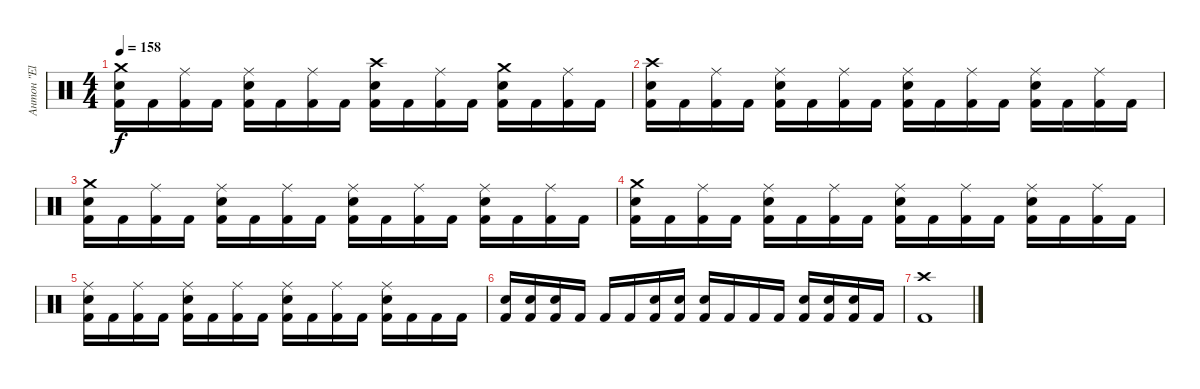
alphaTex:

\track ("Антон \"El Bastardo\" Смольянин" "Антон \"El ") {instrument percussion}
\staff {score}
\articulation defaults
\ts (4 4)
\tempo 158
\clef neutral
\ks c
("Crash medium (hit)" "Electric Snare (hit)" "Kick (hit) 2").16{dy f} "Kick (hit) 2".16 ("Ride (middle)" "Kick (hit) 2").16 "Kick (hit) 2".16 ("Ride (middle)" "Electric Snare (hit)" "Kick (hit) 2").16 "Kick (hit) 2".16 ("Ride (middle)" "Kick (hit) 2").16 "Kick (hit) 2".16 ("Crash high (hit)" "Electric Snare (hit)" "Kick (hit) 2").16 "Kick (hit) 2".16 ("Ride (middle)" "Kick (hit) 2").16 "Kick (hit) 2".16 ("Crash medium (hit)" "Electric Snare (hit)" "Kick (hit) 2").16 "Kick (hit) 2".16 ("Ride (middle)" "Kick (hit) 2").16 "Kick (hit) 2".16 |
("Crash high (hit)" "Electric Snare (hit)" "Kick (hit) 2").16 "Kick (hit) 2".16 ("Ride (middle)" "Kick (hit) 2").16 "Kick (hit) 2".16 ("Ride (middle)" "Electric Snare (hit)" "Kick (hit) 2").16 "Kick (hit) 2".16 ("Ride (middle)" "Kick (hit) 2").16 "Kick (hit) 2".16 ("Ride (middle)" "Electric Snare (hit)" "Kick (hit) 2").16 "Kick (hit) 2".16 ("Ride (middle)" "Kick (hit) 2").16 "Kick (hit) 2".16 ("Ride (middle)" "Electric Snare (hit)" "Kick (hit) 2").16 "Kick (hit) 2".16 ("Ride (middle)" "Kick (hit) 2").16 "Kick (hit) 2".16 |
("Crash medium (hit)" "Electric Snare (hit)" "Kick (hit) 2").16 "Kick (hit) 2".16 ("Ride (middle)" "Kick (hit) 2").16 "Kick (hit) 2".16 ("Ride (middle)" "Electric Snare (hit)" "Kick (hit) 2").16 "Kick (hit) 2".16 ("Ride (middle)" "Kick (hit) 2").16 "Kick (hit) 2".16 ("Ride (middle)" "Electric Snare (hit)" "Kick (hit) 2").16 "Kick (hit) 2".16 ("Ride (middle)" "Kick (hit) 2").16 "Kick (hit) 2".16 ("Ride (middle)" "Electric Snare (hit)" "Kick (hit) 2").16 "Kick (hit) 2".16 ("Ride (middle)" "Kick (hit) 2").16 "Kick (hit) 2".16 |
("Crash medium (hit)" "Electric Snare (hit)" "Kick (hit) 2").16 "Kick (hit) 2".16 ("Ride (middle)" "Kick (hit) 2").16 "Kick (hit) 2".16 ("Ride (middle)" "Electric Snare (hit)" "Kick (hit) 2").16 "Kick (hit) 2".16 ("Ride (middle)" "Kick (hit) 2").16 "Kick (hit) 2".16 ("Ride (middle)" "Electric Snare (hit)" "Kick (hit) 2").16 "Kick (hit) 2".16 ("Ride (middle)" "Kick (hit) 2").16 "Kick (hit) 2".16 ("Ride (middle)" "Electric Snare (hit)" "Kick (hit) 2").16 "Kick (hit) 2".16 ("Ride (middle)" "Kick (hit) 2").16 "Kick (hit) 2".16 |
("Ride (middle)" "Electric Snare (hit)" "Kick (hit) 2").16 "Kick (hit) 2".16 ("Ride (middle)" "Kick (hit) 2").16 "Kick (hit) 2".16 ("Ride (middle)" "Electric Snare (hit)" "Kick (hit) 2").16 "Kick (hit) 2".16 ("Ride (middle)" "Kick (hit) 2").16 "Kick (hit) 2".16 ("Ride (middle)" "Electric Snare (hit)" "Kick (hit) 2").16 "Kick (hit) 2".16 ("Ride (middle)" "Kick (hit) 2").16 "Kick (hit) 2".16 ("Ride (middle)" "Electric Snare (hit)" "Kick (hit) 2").16 "Kick (hit) 2".16 "Kick (hit) 2".16 "Kick (hit) 2".16 |
("Electric Snare (hit)" "Kick (hit) 2").16 ("Electric Snare (hit)" "Kick (hit) 2").16 ("Electric Snare (hit)" "Kick (hit) 2").16 "Kick (hit) 2".16 "Kick (hit) 2".16 "Kick (hit) 2".16 ("Electric Snare (hit)" "Kick (hit) 2").16 ("Electric Snare (hit)" "Kick (hit) 2").16 ("Electric Snare (hit)" "Kick (hit) 2").16 "Kick (hit) 2".16 "Kick (hit) 2".16 "Kick (hit) 2".16 ("Electric Snare (hit)" "Kick (hit) 2").16 ("Electric Snare (hit)" "Kick (hit) 2").16 ("Electric Snare (hit)" "Kick (hit) 2").16 "Kick (hit) 2".16 |
("Crash high (hit)" "Kick (hit) 2").1
